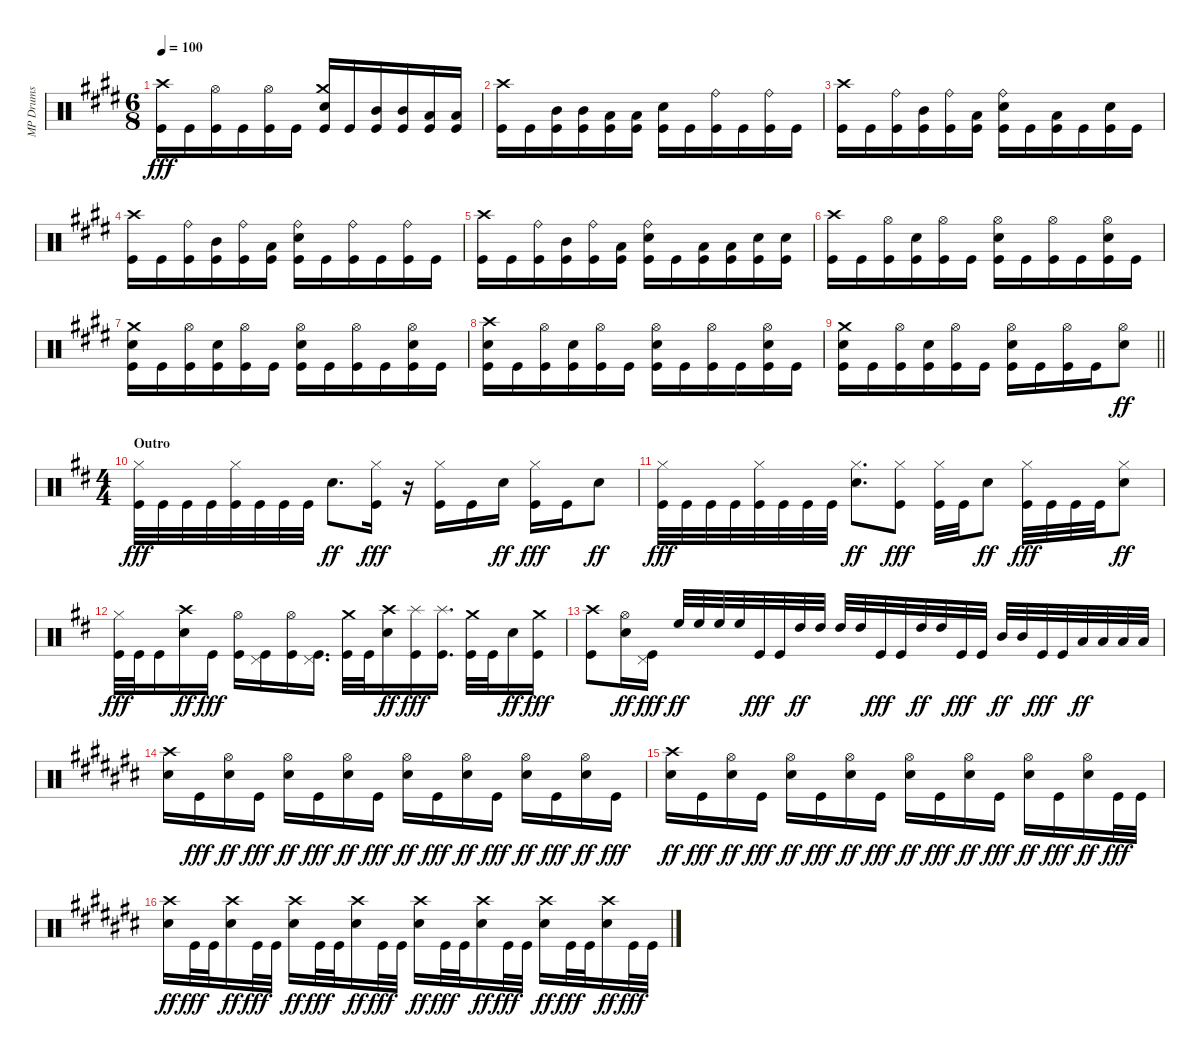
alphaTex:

\track ("MP Drums" "MP Drums") {instrument percussion}
\staff {score}
\articulation defaults
\ts (6 8)
\tempo 100
\clef neutral
\ks e
("Crash high (hit)" "Kick (hit)").16{dy fff} "Kick (hit)".16 ("Hi-Hat (open)" "Kick (hit)").16 "Kick (hit)".16 ("Hi-Hat (open)" "Kick (hit)").16 "Kick (hit)".16 ("Crash medium (hit)" "Snare (hit) 2" "Kick (hit)").16 "Kick (hit)".16 ("Mid Tom (hit)" "Kick (hit)").16 ("Mid Tom (hit)" "Kick (hit)").16 ("Low Tom (hit)" "Kick (hit)").16 ("Low Tom (hit)" "Kick (hit)").16 |
("Crash high (hit)" "Kick (hit)").16 "Kick (hit)".16 ("Mid Tom (hit)" "Kick (hit)").16 ("Mid Tom (hit)" "Kick (hit)").16 ("Low Tom (hit)" "Kick (hit)").16 ("Low Tom (hit)" "Kick (hit)").16 ("Snare (hit) 2" "Kick (hit)").16 "Kick (hit)".16 ("Ride (bell)" "Kick (hit)").16 "Kick (hit)".16 ("Ride (bell)" "Kick (hit)").16 "Kick (hit)".16 |
("Crash high (hit)" "Kick (hit)").16 "Kick (hit)".16 ("Ride (bell)" "Kick (hit)").16 ("Mid Tom (hit)" "Kick (hit)").16 ("Ride (bell)" "Kick (hit)").16 ("Low Tom (hit)" "Kick (hit)").16 ("Ride (bell)" "Snare (hit) 2" "Kick (hit)").16 "Kick (hit)".16 ("Low Tom (hit)" "Kick (hit)").16 "Kick (hit)".16 ("Snare (hit) 2" "Kick (hit)").16 "Kick (hit)".16 |
("Crash high (hit)" "Kick (hit)").16 "Kick (hit)".16 ("Ride (bell)" "Kick (hit)").16 ("Mid Tom (hit)" "Kick (hit)").16 ("Ride (bell)" "Kick (hit)").16 ("Low Tom (hit)" "Kick (hit)").16 ("Ride (bell)" "Snare (hit) 2" "Kick (hit)").16 "Kick (hit)".16 ("Ride (bell)" "Kick (hit)").16 "Kick (hit)".16 ("Ride (bell)" "Kick (hit)").16 "Kick (hit)".16 |
("Crash high (hit)" "Kick (hit)").16 "Kick (hit)".16 ("Ride (bell)" "Kick (hit)").16 ("Mid Tom (hit)" "Kick (hit)").16 ("Ride (bell)" "Kick (hit)").16 ("Low Tom (hit)" "Kick (hit)").16 ("Ride (bell)" "Snare (hit) 2" "Kick (hit)").16 "Kick (hit)".16 ("Low Tom (hit)" "Kick (hit)").16 ("Low Tom (hit)" "Kick (hit)").16 ("Snare (hit) 2" "Kick (hit)").16 ("Snare (hit) 2" "Kick (hit)").16 |
("Crash high (hit)" "Kick (hit)").16 "Kick (hit)".16 ("Hi-Hat (open)" "Kick (hit)").16 ("Snare (hit) 2" "Kick (hit)").16 ("Hi-Hat (open)" "Kick (hit)").16 "Kick (hit)".16 ("Hi-Hat (open)" "Snare (hit) 2" "Kick (hit)").16 "Kick (hit)".16 ("Hi-Hat (open)" "Kick (hit)").16 "Kick (hit)".16 ("Hi-Hat (open)" "Snare (hit) 2" "Kick (hit)").16 "Kick (hit)".16 |
("Crash medium (hit)" "Snare (hit) 2" "Kick (hit)").16 "Kick (hit)".16 ("Hi-Hat (open)" "Kick (hit)").16 ("Snare (hit) 2" "Kick (hit)").16 ("Hi-Hat (open)" "Kick (hit)").16 "Kick (hit)".16 ("Hi-Hat (open)" "Snare (hit) 2" "Kick (hit)").16 "Kick (hit)".16 ("Hi-Hat (open)" "Kick (hit)").16 "Kick (hit)".16 ("Hi-Hat (open)" "Snare (hit) 2" "Kick (hit)").16 "Kick (hit)".16 |
("Crash high (hit)" "Snare (hit) 2" "Kick (hit)").16 "Kick (hit)".16 ("Hi-Hat (open)" "Kick (hit)").16 ("Snare (hit) 2" "Kick (hit)").16 ("Hi-Hat (open)" "Kick (hit)").16 "Kick (hit)".16 ("Hi-Hat (open)" "Snare (hit) 2" "Kick (hit)").16 "Kick (hit)".16 ("Hi-Hat (open)" "Kick (hit)").16 "Kick (hit)".16 ("Hi-Hat (open)" "Snare (hit) 2" "Kick (hit)").16 "Kick (hit)".16 |
\barLineRight lightlight
("Crash medium (hit)" "Snare (hit) 2" "Kick (hit)").16 "Kick (hit)".16 ("Hi-Hat (open)" "Kick (hit)").16 ("Snare (hit) 2" "Kick (hit)").16 ("Hi-Hat (open)" "Kick (hit)").16 "Kick (hit)".16 ("Hi-Hat (open)" "Snare (hit) 2" "Kick (hit)").16 "Kick (hit)".16 ("Hi-Hat (open)" "Kick (hit)").16 "Kick (hit)".16 ("Hi-Hat (open)" "Snare (hit) 2").8{dy ff} |
\ts (4 4)
\section ("" "Outro")
\ks d
("Hi-Hat (closed)" "Kick (hit)").32{dy fff} "Kick (hit)".32 "Kick (hit)".32 "Kick (hit)".32 ("Hi-Hat (closed)" "Kick (hit)").32 "Kick (hit)".32 "Kick (hit)".32 "Kick (hit)".32 "Snare (hit) 2".8{d dy ff} ("Hi-Hat (closed)" "Kick (hit)").16{dy fff} r.16 ("Hi-Hat (closed)" "Kick (hit)").16 "Kick (hit)".16 "Snare (hit) 2".16{dy ff} ("Hi-Hat (closed)" "Kick (hit)").16{dy fff} "Kick (hit)".16 "Snare (hit) 2".8{dy ff} |
("Hi-Hat (closed)" "Kick (hit)").32{dy fff} "Kick (hit)".32 "Kick (hit)".32 "Kick (hit)".32 ("Hi-Hat (closed)" "Kick (hit)").32 "Kick (hit)".32 "Kick (hit)".32 "Kick (hit)".32 ("Hi-Hat (closed)" "Snare (hit) 2").8{d dy ff} ("Hi-Hat (closed)" "Kick (hit)").8{dy fff} ("Hi-Hat (closed)" "Kick (hit)").32 "Kick (hit)".32 "Snare (hit) 2".8{dy ff} ("Hi-Hat (closed)" "Kick (hit)").32{dy fff} "Kick (hit)".32 "Kick (hit)".32 "Kick (hit)".32 ("Hi-Hat (closed)" "Snare (hit) 2").8{dy ff} |
("Hi-Hat (closed)" "Kick (hit)").32{dy fff} "Kick (hit)".32 "Kick (hit)".16 ("Crash high (hit)" "Snare (hit) 2").16{dy ff} "Kick (hit)".16{dy fff} ("Hi-Hat (open)" "Kick (hit)").16 ("Pedal Hi-Hat (hit)" "Kick (hit)").16 ("Hi-Hat (open)" "Kick (hit)").16 ("Pedal Hi-Hat (hit)" "Kick (hit)").16{d} ("Crash medium (hit)" "Kick (hit)").32 "Kick (hit)".32 ("Crash high (hit)" "Snare (hit) 2").16{dy ff} ("Splash (hit)" "Kick (hit)").16{dy fff} ("Splash (hit)" "Kick (hit)").16{d} ("Crash medium (hit)" "Kick (hit)").32 "Kick (hit)".32 "Snare (hit) 2".16{dy ff} ("Crash medium (hit)" "Kick (hit)").16{dy fff} |
("Crash high (hit)" "Kick (hit)").8 ("Hi-Hat (open)" "Snare (hit) 2").16{dy ff} ("Pedal Hi-Hat (hit)" "Kick (hit)").16{dy fff} "High Floor Tom (hit)".32{dy ff} "High Floor Tom (hit)".32 "High Floor Tom (hit)".32 "High Floor Tom (hit)".32 "Kick (hit)".32{dy fff} "Kick (hit)".32 "High Tom (hit)".32{dy ff} "High Tom (hit)".32 "High Tom (hit)".32 "High Tom (hit)".32 "Kick (hit)".32{dy fff} "Kick (hit)".32 "High Tom (hit)".32{dy ff} "High Tom (hit)".32 "Kick (hit)".32{dy fff} "Kick (hit)".32 "Mid Tom (hit)".32{dy ff} "Mid Tom (hit)".32 "Kick (hit)".32{dy fff} "Kick (hit)".32 "Low Tom (hit)".32{dy ff} "Low Tom (hit)".32 "Low Tom (hit)".32 "Low Tom (hit)".32 |
\ks c#
("Crash high (hit)" "Snare (hit) 2").16 "Kick (hit)".16{dy fff} ("Hi-Hat (open)" "Snare (hit) 2").16{dy ff} "Kick (hit)".16{dy fff} ("Hi-Hat (open)" "Snare (hit) 2").16{dy ff} "Kick (hit)".16{dy fff} ("Hi-Hat (open)" "Snare (hit) 2").16{dy ff} "Kick (hit)".16{dy fff} ("Hi-Hat (open)" "Snare (hit) 2").16{dy ff} "Kick (hit)".16{dy fff} ("Hi-Hat (open)" "Snare (hit) 2").16{dy ff} "Kick (hit)".16{dy fff} ("Hi-Hat (open)" "Snare (hit) 2").16{dy ff} "Kick (hit)".16{dy fff} ("Hi-Hat (open)" "Snare (hit) 2").16{dy ff} "Kick (hit)".16{dy fff} |
("Crash high (hit)" "Snare (hit) 2").16{dy ff} "Kick (hit)".16{dy fff} ("Hi-Hat (open)" "Snare (hit) 2").16{dy ff} "Kick (hit)".16{dy fff} ("Hi-Hat (open)" "Snare (hit) 2").16{dy ff} "Kick (hit)".16{dy fff} ("Hi-Hat (open)" "Snare (hit) 2").16{dy ff} "Kick (hit)".16{dy fff} ("Hi-Hat (open)" "Snare (hit) 2").16{dy ff} "Kick (hit)".16{dy fff} ("Hi-Hat (open)" "Snare (hit) 2").16{dy ff} "Kick (hit)".16{dy fff} ("Hi-Hat (open)" "Snare (hit) 2").16{dy ff} "Kick (hit)".16{dy fff} ("Hi-Hat (open)" "Snare (hit) 2").16{dy ff} "Kick (hit)".32{dy fff} "Kick (hit)".32 |
("Crash high (hit)" "Snare (hit) 2").16{dy ff} "Kick (hit)".32{dy fff} "Kick (hit)".32 ("Crash high (hit)" "Snare (hit) 2").16{dy ff} "Kick (hit)".32{dy fff} "Kick (hit)".32 ("Crash high (hit)" "Snare (hit) 2").16{dy ff} "Kick (hit)".32{dy fff} "Kick (hit)".32 ("Crash high (hit)" "Snare (hit) 2").16{dy ff} "Kick (hit)".32{dy fff} "Kick (hit)".32 ("Crash high (hit)" "Snare (hit) 2").16{dy ff} "Kick (hit)".32{dy fff} "Kick (hit)".32 ("Crash high (hit)" "Snare (hit) 2").16{dy ff} "Kick (hit)".32{dy fff} "Kick (hit)".32 ("Crash high (hit)" "Snare (hit) 2").16{dy ff} "Kick (hit)".32{dy fff} "Kick (hit)".32 ("Crash high (hit)" "Snare (hit) 2").16{dy ff} "Kick (hit)".32{dy fff} "Kick (hit)".32
